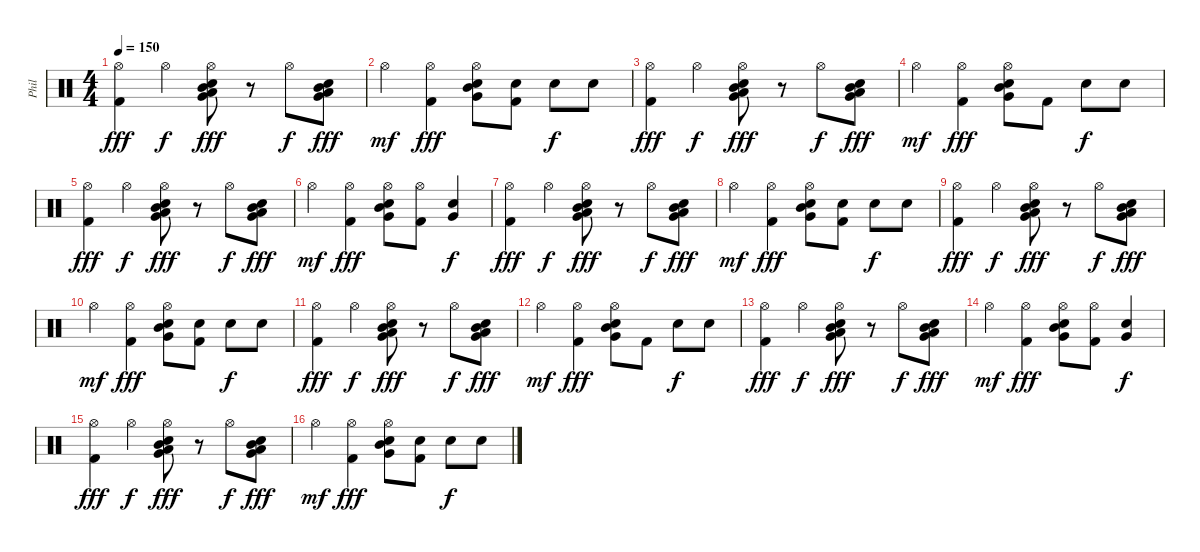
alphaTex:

\track ("Phil" "Phil") {instrument percussion}
\staff {score}
\articulation defaults
\ts (4 4)
\tempo 150
\clef neutral
\ks c
("Hi-Hat (open)" "Kick (hit) 2").4{dy fff} "Hi-Hat (open)".4{dy f} ("Hi-Hat (open)" "Mid Tom (hit)" "Low Floor Tom (hit)" "Very Low Tom (hit)" "Electric Snare (hit)").8{dy fff} r.8 "Hi-Hat (open)".8{dy f} ("Very Low Tom (hit)" "Mid Tom (hit)" "Low Floor Tom (hit)" "Electric Snare (hit)").8{dy fff} |
"Hi-Hat (open)".4{dy mf} ("Hi-Hat (open)" "Kick (hit) 2").4{dy fff} ("Hi-Hat (open)" "Mid Tom (hit)" "Very Low Tom (hit)" "Electric Snare (hit)").8 ("Electric Snare (hit)" "Kick (hit) 2").8 "Electric Snare (hit)".8{dy f} "Electric Snare (hit)".8 |
("Hi-Hat (open)" "Kick (hit) 2").4{dy fff} "Hi-Hat (open)".4{dy f} ("Hi-Hat (open)" "Mid Tom (hit)" "Low Floor Tom (hit)" "Very Low Tom (hit)" "Electric Snare (hit)").8{dy fff} r.8 "Hi-Hat (open)".8{dy f} ("Very Low Tom (hit)" "Mid Tom (hit)" "Low Floor Tom (hit)" "Electric Snare (hit)").8{dy fff} |
"Hi-Hat (open)".4{dy mf} ("Hi-Hat (open)" "Kick (hit) 2").4{dy fff} ("Hi-Hat (open)" "Mid Tom (hit)" "Very Low Tom (hit)" "Electric Snare (hit)").8 "Kick (hit) 2".8 "Electric Snare (hit)".8{dy f} "Electric Snare (hit)".8 |
("Hi-Hat (open)" "Kick (hit) 2").4{dy fff} "Hi-Hat (open)".4{dy f} ("Hi-Hat (open)" "Mid Tom (hit)" "Low Floor Tom (hit)" "Very Low Tom (hit)" "Electric Snare (hit)").8{dy fff} r.8 "Hi-Hat (open)".8{dy f} ("Very Low Tom (hit)" "Mid Tom (hit)" "Low Floor Tom (hit)" "Electric Snare (hit)").8{dy fff} |
"Hi-Hat (open)".4{dy mf} ("Hi-Hat (open)" "Kick (hit) 2").4{dy fff} ("Hi-Hat (open)" "Mid Tom (hit)" "Very Low Tom (hit)" "Electric Snare (hit)").8 ("Hi-Hat (open)" "Kick (hit) 2").8 ("Very Low Tom (hit)" "Electric Snare (hit)").4{dy f} |
("Hi-Hat (open)" "Kick (hit) 2").4{dy fff} "Hi-Hat (open)".4{dy f} ("Hi-Hat (open)" "Mid Tom (hit)" "Low Floor Tom (hit)" "Very Low Tom (hit)" "Electric Snare (hit)").8{dy fff} r.8 "Hi-Hat (open)".8{dy f} ("Very Low Tom (hit)" "Mid Tom (hit)" "Low Floor Tom (hit)" "Electric Snare (hit)").8{dy fff} |
"Hi-Hat (open)".4{dy mf} ("Hi-Hat (open)" "Kick (hit) 2").4{dy fff} ("Hi-Hat (open)" "Mid Tom (hit)" "Very Low Tom (hit)" "Electric Snare (hit)").8 ("Electric Snare (hit)" "Kick (hit) 2").8 "Electric Snare (hit)".8{dy f} "Electric Snare (hit)".8 |
("Hi-Hat (open)" "Kick (hit) 2").4{dy fff} "Hi-Hat (open)".4{dy f} ("Hi-Hat (open)" "Mid Tom (hit)" "Low Floor Tom (hit)" "Very Low Tom (hit)" "Electric Snare (hit)").8{dy fff} r.8 "Hi-Hat (open)".8{dy f} ("Very Low Tom (hit)" "Mid Tom (hit)" "Low Floor Tom (hit)" "Electric Snare (hit)").8{dy fff} |
"Hi-Hat (open)".4{dy mf} ("Hi-Hat (open)" "Kick (hit) 2").4{dy fff} ("Hi-Hat (open)" "Mid Tom (hit)" "Very Low Tom (hit)" "Electric Snare (hit)").8 ("Electric Snare (hit)" "Kick (hit) 2").8 "Electric Snare (hit)".8{dy f} "Electric Snare (hit)".8 |
("Hi-Hat (open)" "Kick (hit) 2").4{dy fff} "Hi-Hat (open)".4{dy f} ("Hi-Hat (open)" "Mid Tom (hit)" "Low Floor Tom (hit)" "Very Low Tom (hit)" "Electric Snare (hit)").8{dy fff} r.8 "Hi-Hat (open)".8{dy f} ("Very Low Tom (hit)" "Mid Tom (hit)" "Low Floor Tom (hit)" "Electric Snare (hit)").8{dy fff} |
"Hi-Hat (open)".4{dy mf} ("Hi-Hat (open)" "Kick (hit) 2").4{dy fff} ("Hi-Hat (open)" "Mid Tom (hit)" "Very Low Tom (hit)" "Electric Snare (hit)").8 "Kick (hit) 2".8 "Electric Snare (hit)".8{dy f} "Electric Snare (hit)".8 |
("Hi-Hat (open)" "Kick (hit) 2").4{dy fff} "Hi-Hat (open)".4{dy f} ("Hi-Hat (open)" "Mid Tom (hit)" "Low Floor Tom (hit)" "Very Low Tom (hit)" "Electric Snare (hit)").8{dy fff} r.8 "Hi-Hat (open)".8{dy f} ("Very Low Tom (hit)" "Mid Tom (hit)" "Low Floor Tom (hit)" "Electric Snare (hit)").8{dy fff} |
"Hi-Hat (open)".4{dy mf} ("Hi-Hat (open)" "Kick (hit) 2").4{dy fff} ("Hi-Hat (open)" "Mid Tom (hit)" "Very Low Tom (hit)" "Electric Snare (hit)").8 ("Hi-Hat (open)" "Kick (hit) 2").8 ("Very Low Tom (hit)" "Electric Snare (hit)").4{dy f} |
("Hi-Hat (open)" "Kick (hit) 2").4{dy fff} "Hi-Hat (open)".4{dy f} ("Hi-Hat (open)" "Mid Tom (hit)" "Low Floor Tom (hit)" "Very Low Tom (hit)" "Electric Snare (hit)").8{dy fff} r.8 "Hi-Hat (open)".8{dy f} ("Very Low Tom (hit)" "Mid Tom (hit)" "Low Floor Tom (hit)" "Electric Snare (hit)").8{dy fff} |
"Hi-Hat (open)".4{dy mf} ("Hi-Hat (open)" "Kick (hit) 2").4{dy fff} ("Hi-Hat (open)" "Mid Tom (hit)" "Very Low Tom (hit)" "Electric Snare (hit)").8 ("Electric Snare (hit)" "Kick (hit) 2").8 "Electric Snare (hit)".8{dy f} "Electric Snare (hit)".8
